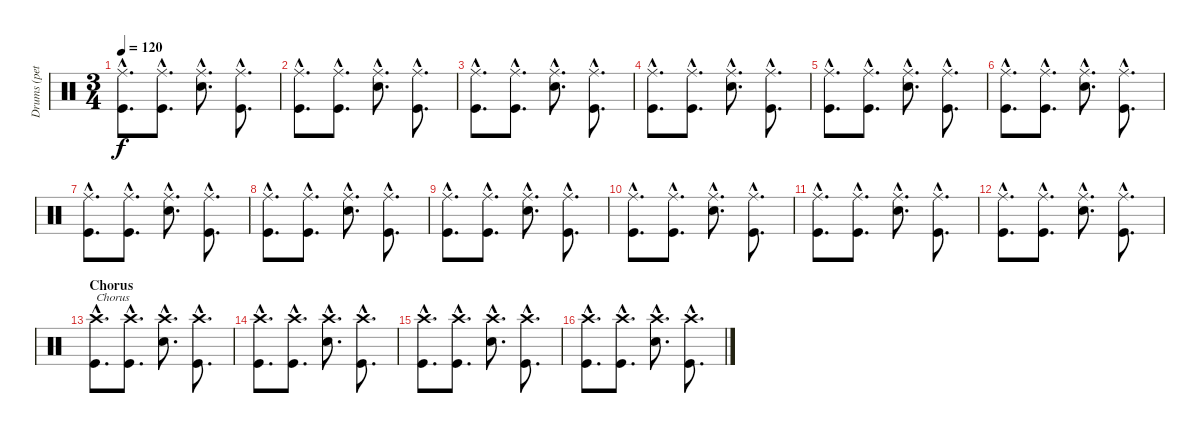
\track ("Drums (pete)" "Drums (pet") {instrument percussion}
\staff {score}
\articulation defaults
\ts (3 4)
\tempo 120
\clef neutral
\ks c
("Ride (middle)"{hac} "Kick (hit)"{hac}).8{d dy f} ("Ride (middle)"{hac} "Kick (hit)"{hac}).8{d} ("Ride (middle)"{hac} "Snare (hit) 2"{hac}).8{d} ("Ride (middle)"{hac} "Kick (hit)"{hac}).8{d} |
("Ride (middle)"{hac} "Kick (hit)"{hac}).8{d} ("Ride (middle)"{hac} "Kick (hit)"{hac}).8{d} ("Ride (middle)"{hac} "Snare (hit) 2"{hac}).8{d} ("Ride (middle)"{hac} "Kick (hit)"{hac}).8{d} |
("Ride (middle)"{hac} "Kick (hit)"{hac}).8{d} ("Ride (middle)"{hac} "Kick (hit)"{hac}).8{d} ("Ride (middle)"{hac} "Snare (hit) 2"{hac}).8{d} ("Ride (middle)"{hac} "Kick (hit)"{hac}).8{d} |
("Ride (middle)"{hac} "Kick (hit)"{hac}).8{d} ("Ride (middle)"{hac} "Kick (hit)"{hac}).8{d} ("Ride (middle)"{hac} "Snare (hit) 2"{hac}).8{d} ("Ride (middle)"{hac} "Kick (hit)"{hac}).8{d} |
("Ride (middle)"{hac} "Kick (hit)"{hac}).8{d} ("Ride (middle)"{hac} "Kick (hit)"{hac}).8{d} ("Ride (middle)"{hac} "Snare (hit) 2"{hac}).8{d} ("Ride (middle)"{hac} "Kick (hit)"{hac}).8{d} |
("Ride (middle)"{hac} "Kick (hit)"{hac}).8{d} ("Ride (middle)"{hac} "Kick (hit)"{hac}).8{d} ("Ride (middle)"{hac} "Snare (hit) 2"{hac}).8{d} ("Ride (middle)"{hac} "Kick (hit)"{hac}).8{d} |
("Ride (middle)"{hac} "Kick (hit)"{hac}).8{d} ("Ride (middle)"{hac} "Kick (hit)"{hac}).8{d} ("Ride (middle)"{hac} "Snare (hit) 2"{hac}).8{d} ("Ride (middle)"{hac} "Kick (hit)"{hac}).8{d} |
("Ride (middle)"{hac} "Kick (hit)"{hac}).8{d} ("Ride (middle)"{hac} "Kick (hit)"{hac}).8{d} ("Ride (middle)"{hac} "Snare (hit) 2"{hac}).8{d} ("Ride (middle)"{hac} "Kick (hit)"{hac}).8{d} |
("Ride (middle)"{hac} "Kick (hit)"{hac}).8{d} ("Ride (middle)"{hac} "Kick (hit)"{hac}).8{d} ("Ride (middle)"{hac} "Snare (hit) 2"{hac}).8{d} ("Ride (middle)"{hac} "Kick (hit)"{hac}).8{d} |
("Ride (middle)"{hac} "Kick (hit)"{hac}).8{d} ("Ride (middle)"{hac} "Kick (hit)"{hac}).8{d} ("Ride (middle)"{hac} "Snare (hit) 2"{hac}).8{d} ("Ride (middle)"{hac} "Kick (hit)"{hac}).8{d} |
("Ride (middle)"{hac} "Kick (hit)"{hac}).8{d} ("Ride (middle)"{hac} "Kick (hit)"{hac}).8{d} ("Ride (middle)"{hac} "Snare (hit) 2"{hac}).8{d} ("Ride (middle)"{hac} "Kick (hit)"{hac}).8{d} |
("Ride (middle)"{hac} "Kick (hit)"{hac}).8{d} ("Ride (middle)"{hac} "Kick (hit)"{hac}).8{d} ("Ride (middle)"{hac} "Snare (hit) 2"{hac}).8{d} ("Ride (middle)"{hac} "Kick (hit)"{hac}).8{d} |
\section ("" "Chorus")
("Crash high (hit)"{hac} "Kick (hit)"{hac}).8{d txt "Chorus"} ("Crash high (hit)"{hac} "Kick (hit)"{hac}).8{d} ("Crash high (hit)"{hac} "Snare (hit) 2"{hac}).8{d} ("Crash high (hit)"{hac} "Kick (hit)"{hac}).8{d} |
("Crash high (hit)"{hac} "Kick (hit)"{hac}).8{d} ("Crash high (hit)"{hac} "Kick (hit)"{hac}).8{d} ("Crash high (hit)"{hac} "Snare (hit) 2"{hac}).8{d} ("Crash high (hit)"{hac} "Kick (hit)"{hac}).8{d} |
("Crash high (hit)"{hac} "Kick (hit)"{hac}).8{d} ("Crash high (hit)"{hac} "Kick (hit)"{hac}).8{d} ("Crash high (hit)"{hac} "Snare (hit) 2"{hac}).8{d} ("Crash high (hit)"{hac} "Kick (hit)"{hac}).8{d} |
("Crash high (hit)"{hac} "Kick (hit)"{hac}).8{d} ("Crash high (hit)"{hac} "Kick (hit)"{hac}).8{d} ("Crash high (hit)"{hac} "Snare (hit) 2"{hac}).8{d} ("Crash high (hit)"{hac} "Kick (hit)"{hac}).8{d}
